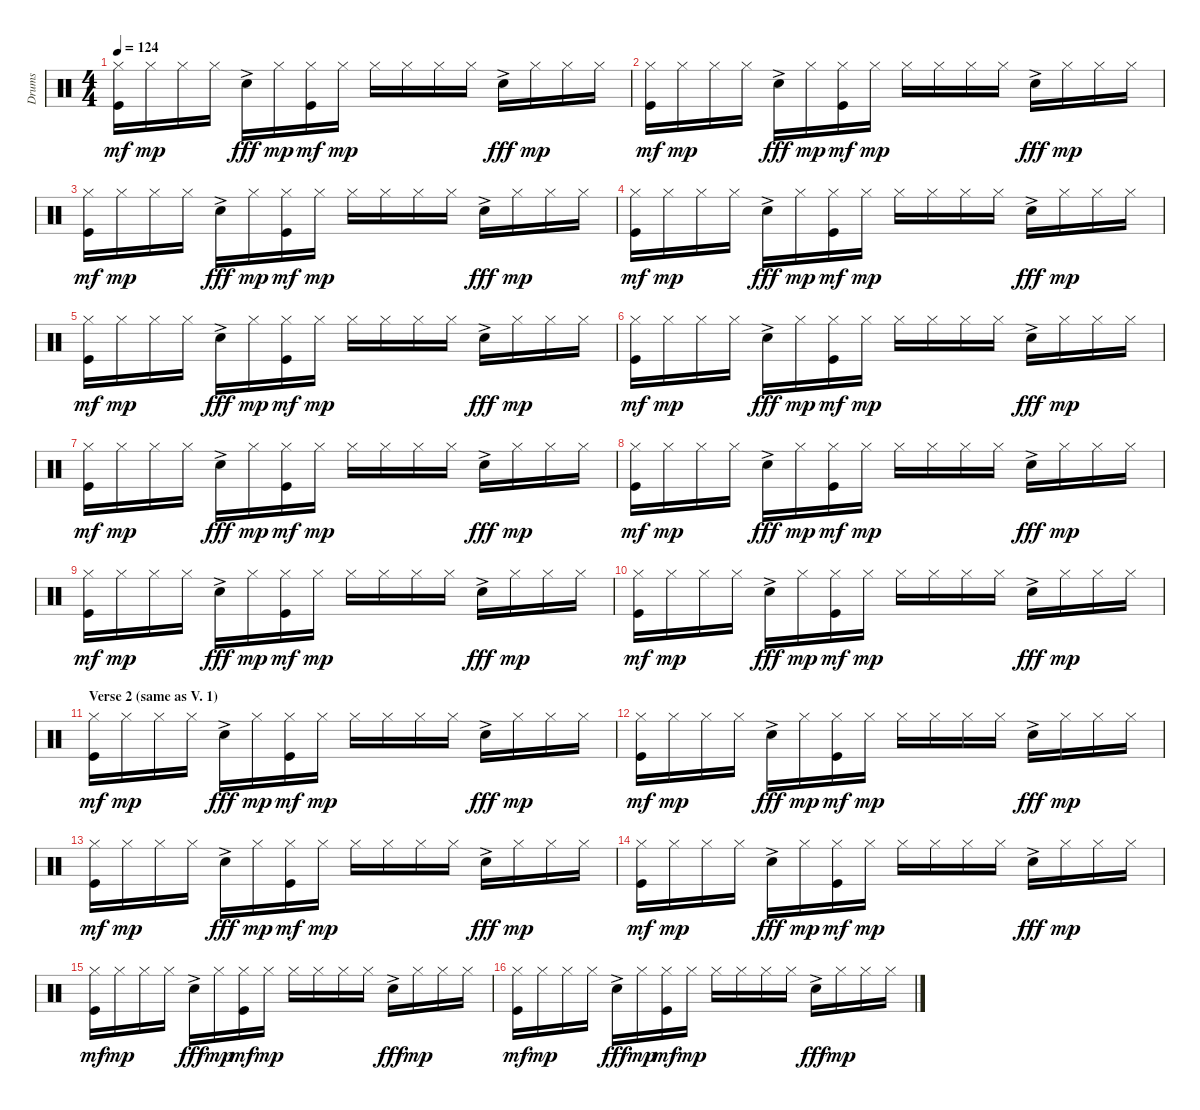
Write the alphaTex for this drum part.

\track ("Drums" "Drums") {instrument percussion}
\staff {score}
\articulation defaults
\ts (4 4)
\tempo 124
\clef neutral
\ks c
("Hi-Hat (closed)" "Kick (hit)").16{dy mf} "Hi-Hat (closed)".16{dy mp} "Hi-Hat (closed)".16 "Hi-Hat (closed)".16 "Snare (hit) 2"{ac}.16{dy fff} "Hi-Hat (closed)".16{dy mp} ("Hi-Hat (closed)" "Kick (hit)").16{dy mf} "Hi-Hat (closed)".16{dy mp} "Hi-Hat (closed)".16 "Hi-Hat (closed)".16 "Hi-Hat (closed)".16 "Hi-Hat (closed)".16 "Snare (hit) 2"{ac}.16{dy fff} "Hi-Hat (closed)".16{dy mp} "Hi-Hat (closed)".16 "Hi-Hat (closed)".16 |
("Hi-Hat (closed)" "Kick (hit)").16{dy mf} "Hi-Hat (closed)".16{dy mp} "Hi-Hat (closed)".16 "Hi-Hat (closed)".16 "Snare (hit) 2"{ac}.16{dy fff} "Hi-Hat (closed)".16{dy mp} ("Hi-Hat (closed)" "Kick (hit)").16{dy mf} "Hi-Hat (closed)".16{dy mp} "Hi-Hat (closed)".16 "Hi-Hat (closed)".16 "Hi-Hat (closed)".16 "Hi-Hat (closed)".16 "Snare (hit) 2"{ac}.16{dy fff} "Hi-Hat (closed)".16{dy mp} "Hi-Hat (closed)".16 "Hi-Hat (closed)".16 |
("Hi-Hat (closed)" "Kick (hit)").16{dy mf} "Hi-Hat (closed)".16{dy mp} "Hi-Hat (closed)".16 "Hi-Hat (closed)".16 "Snare (hit) 2"{ac}.16{dy fff} "Hi-Hat (closed)".16{dy mp} ("Hi-Hat (closed)" "Kick (hit)").16{dy mf} "Hi-Hat (closed)".16{dy mp} "Hi-Hat (closed)".16 "Hi-Hat (closed)".16 "Hi-Hat (closed)".16 "Hi-Hat (closed)".16 "Snare (hit) 2"{ac}.16{dy fff} "Hi-Hat (closed)".16{dy mp} "Hi-Hat (closed)".16 "Hi-Hat (closed)".16 |
("Hi-Hat (closed)" "Kick (hit)").16{dy mf} "Hi-Hat (closed)".16{dy mp} "Hi-Hat (closed)".16 "Hi-Hat (closed)".16 "Snare (hit) 2"{ac}.16{dy fff} "Hi-Hat (closed)".16{dy mp} ("Hi-Hat (closed)" "Kick (hit)").16{dy mf} "Hi-Hat (closed)".16{dy mp} "Hi-Hat (closed)".16 "Hi-Hat (closed)".16 "Hi-Hat (closed)".16 "Hi-Hat (closed)".16 "Snare (hit) 2"{ac}.16{dy fff} "Hi-Hat (closed)".16{dy mp} "Hi-Hat (closed)".16 "Hi-Hat (closed)".16 |
("Hi-Hat (closed)" "Kick (hit)").16{dy mf} "Hi-Hat (closed)".16{dy mp} "Hi-Hat (closed)".16 "Hi-Hat (closed)".16 "Snare (hit) 2"{ac}.16{dy fff} "Hi-Hat (closed)".16{dy mp} ("Hi-Hat (closed)" "Kick (hit)").16{dy mf} "Hi-Hat (closed)".16{dy mp} "Hi-Hat (closed)".16 "Hi-Hat (closed)".16 "Hi-Hat (closed)".16 "Hi-Hat (closed)".16 "Snare (hit) 2"{ac}.16{dy fff} "Hi-Hat (closed)".16{dy mp} "Hi-Hat (closed)".16 "Hi-Hat (closed)".16 |
("Hi-Hat (closed)" "Kick (hit)").16{dy mf} "Hi-Hat (closed)".16{dy mp} "Hi-Hat (closed)".16 "Hi-Hat (closed)".16 "Snare (hit) 2"{ac}.16{dy fff} "Hi-Hat (closed)".16{dy mp} ("Hi-Hat (closed)" "Kick (hit)").16{dy mf} "Hi-Hat (closed)".16{dy mp} "Hi-Hat (closed)".16 "Hi-Hat (closed)".16 "Hi-Hat (closed)".16 "Hi-Hat (closed)".16 "Snare (hit) 2"{ac}.16{dy fff} "Hi-Hat (closed)".16{dy mp} "Hi-Hat (closed)".16 "Hi-Hat (closed)".16 |
("Hi-Hat (closed)" "Kick (hit)").16{dy mf} "Hi-Hat (closed)".16{dy mp} "Hi-Hat (closed)".16 "Hi-Hat (closed)".16 "Snare (hit) 2"{ac}.16{dy fff} "Hi-Hat (closed)".16{dy mp} ("Hi-Hat (closed)" "Kick (hit)").16{dy mf} "Hi-Hat (closed)".16{dy mp} "Hi-Hat (closed)".16 "Hi-Hat (closed)".16 "Hi-Hat (closed)".16 "Hi-Hat (closed)".16 "Snare (hit) 2"{ac}.16{dy fff} "Hi-Hat (closed)".16{dy mp} "Hi-Hat (closed)".16 "Hi-Hat (closed)".16 |
("Hi-Hat (closed)" "Kick (hit)").16{dy mf} "Hi-Hat (closed)".16{dy mp} "Hi-Hat (closed)".16 "Hi-Hat (closed)".16 "Snare (hit) 2"{ac}.16{dy fff} "Hi-Hat (closed)".16{dy mp} ("Hi-Hat (closed)" "Kick (hit)").16{dy mf} "Hi-Hat (closed)".16{dy mp} "Hi-Hat (closed)".16 "Hi-Hat (closed)".16 "Hi-Hat (closed)".16 "Hi-Hat (closed)".16 "Snare (hit) 2"{ac}.16{dy fff} "Hi-Hat (closed)".16{dy mp} "Hi-Hat (closed)".16 "Hi-Hat (closed)".16 |
("Hi-Hat (closed)" "Kick (hit)").16{dy mf} "Hi-Hat (closed)".16{dy mp} "Hi-Hat (closed)".16 "Hi-Hat (closed)".16 "Snare (hit) 2"{ac}.16{dy fff} "Hi-Hat (closed)".16{dy mp} ("Hi-Hat (closed)" "Kick (hit)").16{dy mf} "Hi-Hat (closed)".16{dy mp} "Hi-Hat (closed)".16 "Hi-Hat (closed)".16 "Hi-Hat (closed)".16 "Hi-Hat (closed)".16 "Snare (hit) 2"{ac}.16{dy fff} "Hi-Hat (closed)".16{dy mp} "Hi-Hat (closed)".16 "Hi-Hat (closed)".16 |
("Hi-Hat (closed)" "Kick (hit)").16{dy mf} "Hi-Hat (closed)".16{dy mp} "Hi-Hat (closed)".16 "Hi-Hat (closed)".16 "Snare (hit) 2"{ac}.16{dy fff} "Hi-Hat (closed)".16{dy mp} ("Hi-Hat (closed)" "Kick (hit)").16{dy mf} "Hi-Hat (closed)".16{dy mp} "Hi-Hat (closed)".16 "Hi-Hat (closed)".16 "Hi-Hat (closed)".16 "Hi-Hat (closed)".16 "Snare (hit) 2"{ac}.16{dy fff} "Hi-Hat (closed)".16{dy mp} "Hi-Hat (closed)".16 "Hi-Hat (closed)".16 |
\section ("" "Verse 2 (same as V. 1)")
("Hi-Hat (closed)" "Kick (hit)").16{dy mf} "Hi-Hat (closed)".16{dy mp} "Hi-Hat (closed)".16 "Hi-Hat (closed)".16 "Snare (hit) 2"{ac}.16{dy fff} "Hi-Hat (closed)".16{dy mp} ("Hi-Hat (closed)" "Kick (hit)").16{dy mf} "Hi-Hat (closed)".16{dy mp} "Hi-Hat (closed)".16 "Hi-Hat (closed)".16 "Hi-Hat (closed)".16 "Hi-Hat (closed)".16 "Snare (hit) 2"{ac}.16{dy fff} "Hi-Hat (closed)".16{dy mp} "Hi-Hat (closed)".16 "Hi-Hat (closed)".16 |
("Hi-Hat (closed)" "Kick (hit)").16{dy mf} "Hi-Hat (closed)".16{dy mp} "Hi-Hat (closed)".16 "Hi-Hat (closed)".16 "Snare (hit) 2"{ac}.16{dy fff} "Hi-Hat (closed)".16{dy mp} ("Hi-Hat (closed)" "Kick (hit)").16{dy mf} "Hi-Hat (closed)".16{dy mp} "Hi-Hat (closed)".16 "Hi-Hat (closed)".16 "Hi-Hat (closed)".16 "Hi-Hat (closed)".16 "Snare (hit) 2"{ac}.16{dy fff} "Hi-Hat (closed)".16{dy mp} "Hi-Hat (closed)".16 "Hi-Hat (closed)".16 |
("Hi-Hat (closed)" "Kick (hit)").16{dy mf} "Hi-Hat (closed)".16{dy mp} "Hi-Hat (closed)".16 "Hi-Hat (closed)".16 "Snare (hit) 2"{ac}.16{dy fff} "Hi-Hat (closed)".16{dy mp} ("Hi-Hat (closed)" "Kick (hit)").16{dy mf} "Hi-Hat (closed)".16{dy mp} "Hi-Hat (closed)".16 "Hi-Hat (closed)".16 "Hi-Hat (closed)".16 "Hi-Hat (closed)".16 "Snare (hit) 2"{ac}.16{dy fff} "Hi-Hat (closed)".16{dy mp} "Hi-Hat (closed)".16 "Hi-Hat (closed)".16 |
("Hi-Hat (closed)" "Kick (hit)").16{dy mf} "Hi-Hat (closed)".16{dy mp} "Hi-Hat (closed)".16 "Hi-Hat (closed)".16 "Snare (hit) 2"{ac}.16{dy fff} "Hi-Hat (closed)".16{dy mp} ("Hi-Hat (closed)" "Kick (hit)").16{dy mf} "Hi-Hat (closed)".16{dy mp} "Hi-Hat (closed)".16 "Hi-Hat (closed)".16 "Hi-Hat (closed)".16 "Hi-Hat (closed)".16 "Snare (hit) 2"{ac}.16{dy fff} "Hi-Hat (closed)".16{dy mp} "Hi-Hat (closed)".16 "Hi-Hat (closed)".16 |
("Hi-Hat (closed)" "Kick (hit)").16{dy mf} "Hi-Hat (closed)".16{dy mp} "Hi-Hat (closed)".16 "Hi-Hat (closed)".16 "Snare (hit) 2"{ac}.16{dy fff} "Hi-Hat (closed)".16{dy mp} ("Hi-Hat (closed)" "Kick (hit)").16{dy mf} "Hi-Hat (closed)".16{dy mp} "Hi-Hat (closed)".16 "Hi-Hat (closed)".16 "Hi-Hat (closed)".16 "Hi-Hat (closed)".16 "Snare (hit) 2"{ac}.16{dy fff} "Hi-Hat (closed)".16{dy mp} "Hi-Hat (closed)".16 "Hi-Hat (closed)".16 |
("Hi-Hat (closed)" "Kick (hit)").16{dy mf} "Hi-Hat (closed)".16{dy mp} "Hi-Hat (closed)".16 "Hi-Hat (closed)".16 "Snare (hit) 2"{ac}.16{dy fff} "Hi-Hat (closed)".16{dy mp} ("Hi-Hat (closed)" "Kick (hit)").16{dy mf} "Hi-Hat (closed)".16{dy mp} "Hi-Hat (closed)".16 "Hi-Hat (closed)".16 "Hi-Hat (closed)".16 "Hi-Hat (closed)".16 "Snare (hit) 2"{ac}.16{dy fff} "Hi-Hat (closed)".16{dy mp} "Hi-Hat (closed)".16 "Hi-Hat (closed)".16
